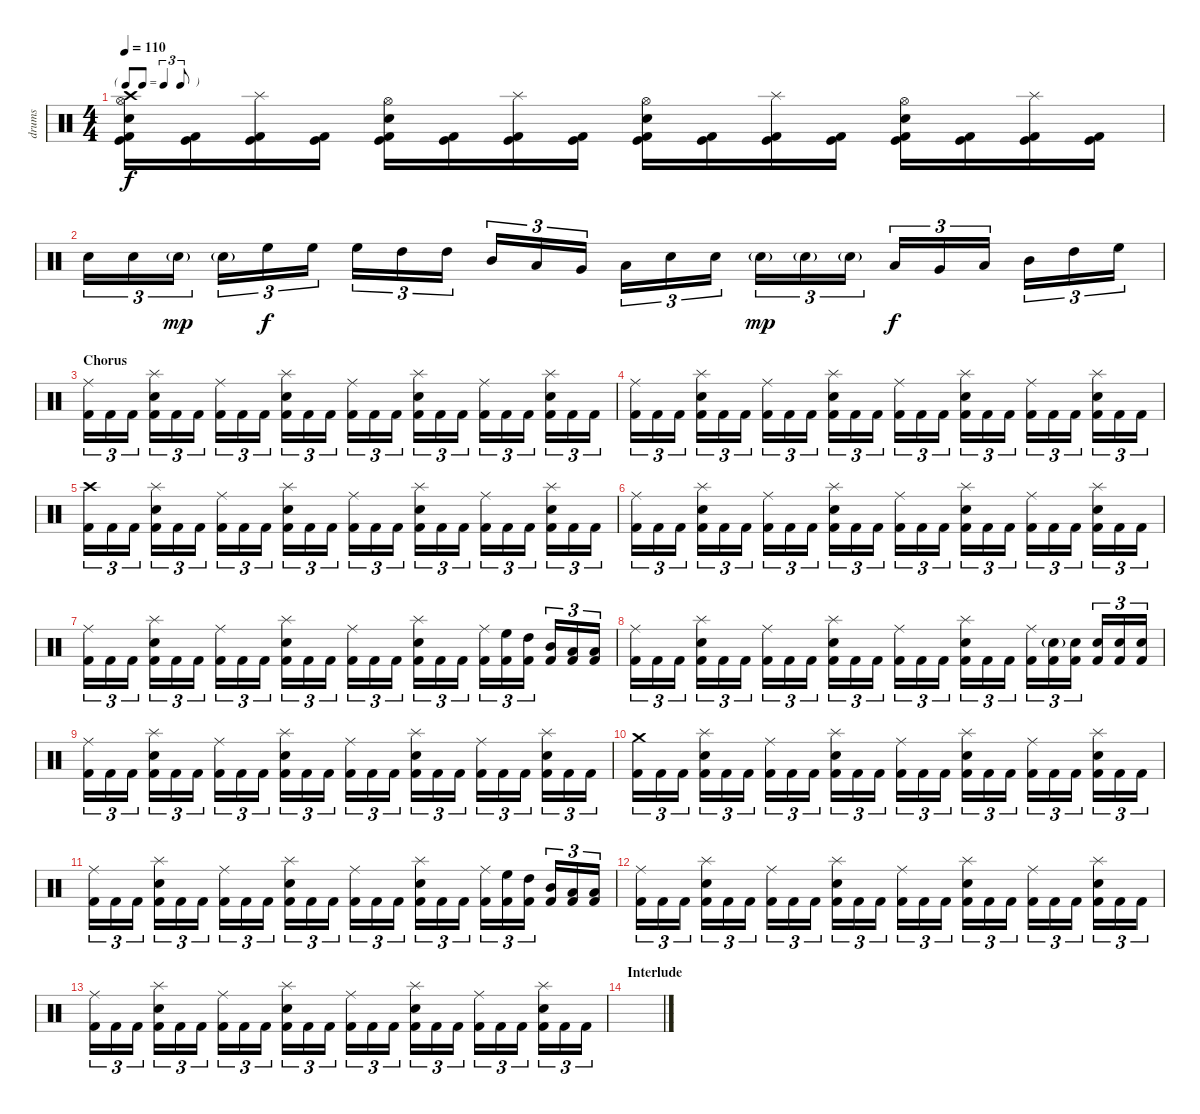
\track ("drums" "drums") {instrument percussion}
\staff {score}
\articulation defaults
\ts (4 4)
\tf triplet8th
\tempo 110
\clef neutral
\ks c
("Crash high (hit)" "Hi-Hat (open)" "Snare (hit) 2" "Kick (hit) 2" "Kick (hit)").16{dy f} ("Kick (hit) 2" "Kick (hit)").16 ("Splash (hit)" "Kick (hit) 2" "Kick (hit)").16 ("Kick (hit) 2" "Kick (hit)").16 ("Hi-Hat (open)" "Snare (hit) 2" "Kick (hit) 2" "Kick (hit)").16 ("Kick (hit) 2" "Kick (hit)").16 ("Splash (hit)" "Kick (hit) 2" "Kick (hit)").16 ("Kick (hit) 2" "Kick (hit)").16 ("Hi-Hat (open)" "Snare (hit) 2" "Kick (hit) 2" "Kick (hit)").16 ("Kick (hit) 2" "Kick (hit)").16 ("Splash (hit)" "Kick (hit) 2" "Kick (hit)").16 ("Kick (hit) 2" "Kick (hit)").16 ("Hi-Hat (open)" "Snare (hit) 2" "Kick (hit) 2" "Kick (hit)").16 ("Kick (hit) 2" "Kick (hit)").16 ("Splash (hit)" "Kick (hit) 2" "Kick (hit)").16 ("Kick (hit) 2" "Kick (hit)").16 |
"Snare (hit) 2".16{tu (3 2)} "Snare (hit) 2".16{tu (3 2)} "Electric Snare (hit)"{g}.16{tu (3 2) dy mp} "Electric Snare (hit)"{g}.16{tu (3 2)} "High Floor Tom (hit)".16{tu (3 2) dy f} "High Floor Tom (hit)".16{tu (3 2)} "High Floor Tom (hit)".16{tu (3 2)} "High Tom (hit)".16{tu (3 2)} "High Tom (hit)".16{tu (3 2)} "Mid Tom (hit)".16{tu (3 2)} "Low Tom (hit)".16{tu (3 2)} "Very Low Tom (hit)".16{tu (3 2)} "Low Floor Tom (hit)".16{tu (3 2)} "Snare (hit) 2".16{tu (3 2)} "Snare (hit) 2".16{tu (3 2)} "Electric Snare (hit)"{g}.16{tu (3 2) dy mp} "Electric Snare (hit)"{g}.16{tu (3 2)} "Electric Snare (hit)"{g}.16{tu (3 2)} "Low Floor Tom (hit)".16{tu (3 2) dy f} "Very Low Tom (hit)".16{tu (3 2)} "Low Tom (hit)".16{tu (3 2)} "Mid Tom (hit)".16{tu (3 2)} "High Tom (hit)".16{tu (3 2)} "High Floor Tom (hit)".16{tu (3 2)} |
\section ("" "Chorus")
("Ride (middle)" "Kick (hit) 2").16{tu (3 2)} "Kick (hit) 2".16{tu (3 2)} "Kick (hit) 2".16{tu (3 2)} ("Splash (hit)" "Snare (hit) 2" "Kick (hit) 2").16{tu (3 2)} "Kick (hit) 2".16{tu (3 2)} "Kick (hit) 2".16{tu (3 2)} ("Ride (middle)" "Kick (hit) 2").16{tu (3 2)} "Kick (hit) 2".16{tu (3 2)} "Kick (hit) 2".16{tu (3 2)} ("Splash (hit)" "Snare (hit) 2" "Kick (hit) 2").16{tu (3 2)} "Kick (hit) 2".16{tu (3 2)} "Kick (hit) 2".16{tu (3 2)} ("Ride (middle)" "Kick (hit) 2").16{tu (3 2)} "Kick (hit) 2".16{tu (3 2)} "Kick (hit) 2".16{tu (3 2)} ("Splash (hit)" "Snare (hit) 2" "Kick (hit) 2").16{tu (3 2)} "Kick (hit) 2".16{tu (3 2)} "Kick (hit) 2".16{tu (3 2)} ("Ride (middle)" "Kick (hit) 2").16{tu (3 2)} "Kick (hit) 2".16{tu (3 2)} "Kick (hit) 2".16{tu (3 2)} ("Splash (hit)" "Snare (hit) 2" "Kick (hit) 2").16{tu (3 2)} "Kick (hit) 2".16{tu (3 2)} "Kick (hit) 2".16{tu (3 2)} |
("Ride (middle)" "Kick (hit) 2").16{tu (3 2)} "Kick (hit) 2".16{tu (3 2)} "Kick (hit) 2".16{tu (3 2)} ("Splash (hit)" "Snare (hit) 2" "Kick (hit) 2").16{tu (3 2)} "Kick (hit) 2".16{tu (3 2)} "Kick (hit) 2".16{tu (3 2)} ("Ride (middle)" "Kick (hit) 2").16{tu (3 2)} "Kick (hit) 2".16{tu (3 2)} "Kick (hit) 2".16{tu (3 2)} ("Splash (hit)" "Snare (hit) 2" "Kick (hit) 2").16{tu (3 2)} "Kick (hit) 2".16{tu (3 2)} "Kick (hit) 2".16{tu (3 2)} ("Ride (middle)" "Kick (hit) 2").16{tu (3 2)} "Kick (hit) 2".16{tu (3 2)} "Kick (hit) 2".16{tu (3 2)} ("Splash (hit)" "Snare (hit) 2" "Kick (hit) 2").16{tu (3 2)} "Kick (hit) 2".16{tu (3 2)} "Kick (hit) 2".16{tu (3 2)} ("Ride (middle)" "Kick (hit) 2").16{tu (3 2)} "Kick (hit) 2".16{tu (3 2)} "Kick (hit) 2".16{tu (3 2)} ("Splash (hit)" "Snare (hit) 2" "Kick (hit) 2").16{tu (3 2)} "Kick (hit) 2".16{tu (3 2)} "Kick (hit) 2".16{tu (3 2)} |
("Crash high (hit)" "Kick (hit) 2").16{tu (3 2)} "Kick (hit) 2".16{tu (3 2)} "Kick (hit) 2".16{tu (3 2)} ("Splash (hit)" "Snare (hit) 2" "Kick (hit) 2").16{tu (3 2)} "Kick (hit) 2".16{tu (3 2)} "Kick (hit) 2".16{tu (3 2)} ("Ride (middle)" "Kick (hit) 2").16{tu (3 2)} "Kick (hit) 2".16{tu (3 2)} "Kick (hit) 2".16{tu (3 2)} ("Splash (hit)" "Snare (hit) 2" "Kick (hit) 2").16{tu (3 2)} "Kick (hit) 2".16{tu (3 2)} "Kick (hit) 2".16{tu (3 2)} ("Ride (middle)" "Kick (hit) 2").16{tu (3 2)} "Kick (hit) 2".16{tu (3 2)} "Kick (hit) 2".16{tu (3 2)} ("Splash (hit)" "Snare (hit) 2" "Kick (hit) 2").16{tu (3 2)} "Kick (hit) 2".16{tu (3 2)} "Kick (hit) 2".16{tu (3 2)} ("Ride (middle)" "Kick (hit) 2").16{tu (3 2)} "Kick (hit) 2".16{tu (3 2)} "Kick (hit) 2".16{tu (3 2)} ("Splash (hit)" "Snare (hit) 2" "Kick (hit) 2").16{tu (3 2)} "Kick (hit) 2".16{tu (3 2)} "Kick (hit) 2".16{tu (3 2)} |
("Ride (middle)" "Kick (hit) 2").16{tu (3 2)} "Kick (hit) 2".16{tu (3 2)} "Kick (hit) 2".16{tu (3 2)} ("Splash (hit)" "Snare (hit) 2" "Kick (hit) 2").16{tu (3 2)} "Kick (hit) 2".16{tu (3 2)} "Kick (hit) 2".16{tu (3 2)} ("Ride (middle)" "Kick (hit) 2").16{tu (3 2)} "Kick (hit) 2".16{tu (3 2)} "Kick (hit) 2".16{tu (3 2)} ("Splash (hit)" "Snare (hit) 2" "Kick (hit) 2").16{tu (3 2)} "Kick (hit) 2".16{tu (3 2)} "Kick (hit) 2".16{tu (3 2)} ("Ride (middle)" "Kick (hit) 2").16{tu (3 2)} "Kick (hit) 2".16{tu (3 2)} "Kick (hit) 2".16{tu (3 2)} ("Splash (hit)" "Snare (hit) 2" "Kick (hit) 2").16{tu (3 2)} "Kick (hit) 2".16{tu (3 2)} "Kick (hit) 2".16{tu (3 2)} ("Ride (middle)" "Kick (hit) 2").16{tu (3 2)} "Kick (hit) 2".16{tu (3 2)} "Kick (hit) 2".16{tu (3 2)} ("Splash (hit)" "Snare (hit) 2" "Kick (hit) 2").16{tu (3 2)} "Kick (hit) 2".16{tu (3 2)} "Kick (hit) 2".16{tu (3 2)} |
("Ride (middle)" "Kick (hit) 2").16{tu (3 2)} "Kick (hit) 2".16{tu (3 2)} "Kick (hit) 2".16{tu (3 2)} ("Splash (hit)" "Snare (hit) 2" "Kick (hit) 2").16{tu (3 2)} "Kick (hit) 2".16{tu (3 2)} "Kick (hit) 2".16{tu (3 2)} ("Ride (middle)" "Kick (hit) 2").16{tu (3 2)} "Kick (hit) 2".16{tu (3 2)} "Kick (hit) 2".16{tu (3 2)} ("Splash (hit)" "Snare (hit) 2" "Kick (hit) 2").16{tu (3 2)} "Kick (hit) 2".16{tu (3 2)} "Kick (hit) 2".16{tu (3 2)} ("Ride (middle)" "Kick (hit) 2").16{tu (3 2)} "Kick (hit) 2".16{tu (3 2)} "Kick (hit) 2".16{tu (3 2)} ("Splash (hit)" "Snare (hit) 2" "Kick (hit) 2").16{tu (3 2)} "Kick (hit) 2".16{tu (3 2)} "Kick (hit) 2".16{tu (3 2)} ("Ride (middle)" "Kick (hit) 2").16{tu (3 2)} ("High Floor Tom (hit)" "Kick (hit) 2").16{tu (3 2)} ("High Tom (hit)" "Kick (hit) 2").16{tu (3 2)} ("Mid Tom (hit)" "Kick (hit) 2").16{tu (3 2)} ("Low Tom (hit)" "Kick (hit) 2").16{tu (3 2)} ("Low Floor Tom (hit)" "Kick (hit) 2").16{tu (3 2)} |
("Ride (middle)" "Kick (hit) 2").16{tu (3 2)} "Kick (hit) 2".16{tu (3 2)} "Kick (hit) 2".16{tu (3 2)} ("Splash (hit)" "Snare (hit) 2" "Kick (hit) 2").16{tu (3 2)} "Kick (hit) 2".16{tu (3 2)} "Kick (hit) 2".16{tu (3 2)} ("Ride (middle)" "Kick (hit) 2").16{tu (3 2)} "Kick (hit) 2".16{tu (3 2)} "Kick (hit) 2".16{tu (3 2)} ("Splash (hit)" "Snare (hit) 2" "Kick (hit) 2").16{tu (3 2)} "Kick (hit) 2".16{tu (3 2)} "Kick (hit) 2".16{tu (3 2)} ("Ride (middle)" "Kick (hit) 2").16{tu (3 2)} "Kick (hit) 2".16{tu (3 2)} "Kick (hit) 2".16{tu (3 2)} ("Splash (hit)" "Snare (hit) 2" "Kick (hit) 2").16{tu (3 2)} "Kick (hit) 2".16{tu (3 2)} "Kick (hit) 2".16{tu (3 2)} ("Ride (middle)" "Kick (hit) 2").16{tu (3 2)} ("Electric Snare (hit)"{g} "Kick (hit) 2").16{tu (3 2)} ("Snare (hit) 2" "Kick (hit) 2").16{tu (3 2)} ("Snare (hit) 2" "Kick (hit) 2").16{tu (3 2)} ("Snare (hit) 2" "Kick (hit) 2").16{tu (3 2)} ("Snare (hit) 2" "Kick (hit) 2").16{tu (3 2)} |
("Ride (middle)" "Kick (hit) 2").16{tu (3 2)} "Kick (hit) 2".16{tu (3 2)} "Kick (hit) 2".16{tu (3 2)} ("Splash (hit)" "Snare (hit) 2" "Kick (hit) 2").16{tu (3 2)} "Kick (hit) 2".16{tu (3 2)} "Kick (hit) 2".16{tu (3 2)} ("Ride (middle)" "Kick (hit) 2").16{tu (3 2)} "Kick (hit) 2".16{tu (3 2)} "Kick (hit) 2".16{tu (3 2)} ("Splash (hit)" "Snare (hit) 2" "Kick (hit) 2").16{tu (3 2)} "Kick (hit) 2".16{tu (3 2)} "Kick (hit) 2".16{tu (3 2)} ("Ride (middle)" "Kick (hit) 2").16{tu (3 2)} "Kick (hit) 2".16{tu (3 2)} "Kick (hit) 2".16{tu (3 2)} ("Splash (hit)" "Snare (hit) 2" "Kick (hit) 2").16{tu (3 2)} "Kick (hit) 2".16{tu (3 2)} "Kick (hit) 2".16{tu (3 2)} ("Ride (middle)" "Kick (hit) 2").16{tu (3 2)} "Kick (hit) 2".16{tu (3 2)} "Kick (hit) 2".16{tu (3 2)} ("Splash (hit)" "Snare (hit) 2" "Kick (hit) 2").16{tu (3 2)} "Kick (hit) 2".16{tu (3 2)} "Kick (hit) 2".16{tu (3 2)} |
("Crash medium (hit)" "Kick (hit) 2").16{tu (3 2)} "Kick (hit) 2".16{tu (3 2)} "Kick (hit) 2".16{tu (3 2)} ("Splash (hit)" "Snare (hit) 2" "Kick (hit) 2").16{tu (3 2)} "Kick (hit) 2".16{tu (3 2)} "Kick (hit) 2".16{tu (3 2)} ("Ride (middle)" "Kick (hit) 2").16{tu (3 2)} "Kick (hit) 2".16{tu (3 2)} "Kick (hit) 2".16{tu (3 2)} ("Splash (hit)" "Snare (hit) 2" "Kick (hit) 2").16{tu (3 2)} "Kick (hit) 2".16{tu (3 2)} "Kick (hit) 2".16{tu (3 2)} ("Ride (middle)" "Kick (hit) 2").16{tu (3 2)} "Kick (hit) 2".16{tu (3 2)} "Kick (hit) 2".16{tu (3 2)} ("Splash (hit)" "Snare (hit) 2" "Kick (hit) 2").16{tu (3 2)} "Kick (hit) 2".16{tu (3 2)} "Kick (hit) 2".16{tu (3 2)} ("Ride (middle)" "Kick (hit) 2").16{tu (3 2)} "Kick (hit) 2".16{tu (3 2)} "Kick (hit) 2".16{tu (3 2)} ("Splash (hit)" "Snare (hit) 2" "Kick (hit) 2").16{tu (3 2)} "Kick (hit) 2".16{tu (3 2)} "Kick (hit) 2".16{tu (3 2)} |
("Ride (middle)" "Kick (hit) 2").16{tu (3 2)} "Kick (hit) 2".16{tu (3 2)} "Kick (hit) 2".16{tu (3 2)} ("Splash (hit)" "Snare (hit) 2" "Kick (hit) 2").16{tu (3 2)} "Kick (hit) 2".16{tu (3 2)} "Kick (hit) 2".16{tu (3 2)} ("Ride (middle)" "Kick (hit) 2").16{tu (3 2)} "Kick (hit) 2".16{tu (3 2)} "Kick (hit) 2".16{tu (3 2)} ("Splash (hit)" "Snare (hit) 2" "Kick (hit) 2").16{tu (3 2)} "Kick (hit) 2".16{tu (3 2)} "Kick (hit) 2".16{tu (3 2)} ("Ride (middle)" "Kick (hit) 2").16{tu (3 2)} "Kick (hit) 2".16{tu (3 2)} "Kick (hit) 2".16{tu (3 2)} ("Splash (hit)" "Snare (hit) 2" "Kick (hit) 2").16{tu (3 2)} "Kick (hit) 2".16{tu (3 2)} "Kick (hit) 2".16{tu (3 2)} ("Ride (middle)" "Kick (hit) 2").16{tu (3 2)} ("High Floor Tom (hit)" "Kick (hit) 2").16{tu (3 2)} ("High Tom (hit)" "Kick (hit) 2").16{tu (3 2)} ("Mid Tom (hit)" "Kick (hit) 2").16{tu (3 2)} ("Low Tom (hit)" "Kick (hit) 2").16{tu (3 2)} ("Low Floor Tom (hit)" "Kick (hit) 2").16{tu (3 2)} |
("Ride (middle)" "Kick (hit) 2").16{tu (3 2)} "Kick (hit) 2".16{tu (3 2)} "Kick (hit) 2".16{tu (3 2)} ("Splash (hit)" "Snare (hit) 2" "Kick (hit) 2").16{tu (3 2)} "Kick (hit) 2".16{tu (3 2)} "Kick (hit) 2".16{tu (3 2)} ("Ride (middle)" "Kick (hit) 2").16{tu (3 2)} "Kick (hit) 2".16{tu (3 2)} "Kick (hit) 2".16{tu (3 2)} ("Splash (hit)" "Snare (hit) 2" "Kick (hit) 2").16{tu (3 2)} "Kick (hit) 2".16{tu (3 2)} "Kick (hit) 2".16{tu (3 2)} ("Ride (middle)" "Kick (hit) 2").16{tu (3 2)} "Kick (hit) 2".16{tu (3 2)} "Kick (hit) 2".16{tu (3 2)} ("Splash (hit)" "Snare (hit) 2" "Kick (hit) 2").16{tu (3 2)} "Kick (hit) 2".16{tu (3 2)} "Kick (hit) 2".16{tu (3 2)} ("Ride (middle)" "Kick (hit) 2").16{tu (3 2)} "Kick (hit) 2".16{tu (3 2)} "Kick (hit) 2".16{tu (3 2)} ("Splash (hit)" "Snare (hit) 2" "Kick (hit) 2").16{tu (3 2)} "Kick (hit) 2".16{tu (3 2)} "Kick (hit) 2".16{tu (3 2)} |
("Ride (middle)" "Kick (hit) 2").16{tu (3 2)} "Kick (hit) 2".16{tu (3 2)} "Kick (hit) 2".16{tu (3 2)} ("Splash (hit)" "Snare (hit) 2" "Kick (hit) 2").16{tu (3 2)} "Kick (hit) 2".16{tu (3 2)} "Kick (hit) 2".16{tu (3 2)} ("Ride (middle)" "Kick (hit) 2").16{tu (3 2)} "Kick (hit) 2".16{tu (3 2)} "Kick (hit) 2".16{tu (3 2)} ("Splash (hit)" "Snare (hit) 2" "Kick (hit) 2").16{tu (3 2)} "Kick (hit) 2".16{tu (3 2)} "Kick (hit) 2".16{tu (3 2)} ("Ride (middle)" "Kick (hit) 2").16{tu (3 2)} "Kick (hit) 2".16{tu (3 2)} "Kick (hit) 2".16{tu (3 2)} ("Splash (hit)" "Snare (hit) 2" "Kick (hit) 2").16{tu (3 2)} "Kick (hit) 2".16{tu (3 2)} "Kick (hit) 2".16{tu (3 2)} ("Ride (middle)" "Kick (hit) 2").16{tu (3 2)} "Kick (hit) 2".16{tu (3 2)} "Kick (hit) 2".16{tu (3 2)} ("Splash (hit)" "Snare (hit) 2" "Kick (hit) 2").16{tu (3 2)} "Kick (hit) 2".16{tu (3 2)} "Kick (hit) 2".16{tu (3 2)} |
\section ("" "Interlude")
